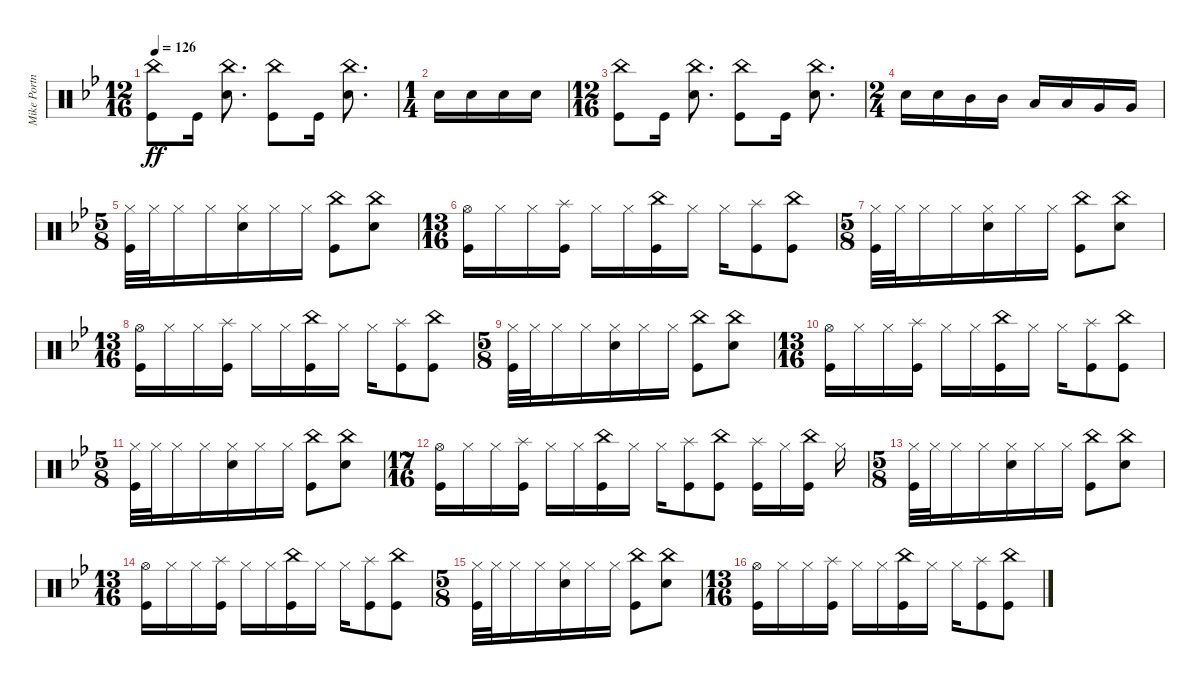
\track ("Mike Portnoy - Drums" "Mike Portn") {instrument percussion}
\staff {score}
\articulation defaults
\ts (12 16)
\tempo 126
\clef neutral
\ks gminor
("China (hit)" "Kick (hit)").8{dy ff} "Kick (hit)".16 ("China (hit)" "Snare (hit) 2").8{d} ("China (hit)" "Kick (hit)").8 "Kick (hit)".16 ("China (hit)" "Snare (hit) 2").8{d} |
\ts (1 4)
"Snare (hit) 2".16 "Snare (hit) 2".16 "Snare (hit) 2".16 "Snare (hit) 2".16 |
\ts (12 16)
("China (hit)" "Kick (hit)").8 "Kick (hit)".16 ("China (hit)" "Snare (hit) 2").8{d} ("China (hit)" "Kick (hit)").8 "Kick (hit)".16 ("China (hit)" "Snare (hit) 2").8{d} |
\ts (2 4)
"Snare (hit) 2".16 "Snare (hit) 2".16 "Mid Tom (hit)".16 "Mid Tom (hit)".16 "Low Tom (hit)".16 "Low Tom (hit)".16 "Very Low Tom (hit)".16 "Very Low Tom (hit)".16 |
\ts (5 8)
("Hi-Hat (closed)" "Kick (hit)").32 "Hi-Hat (closed)".32 "Hi-Hat (closed)".16 "Hi-Hat (closed)".16 ("Hi-Hat (closed)" "Snare (hit) 2").16 "Hi-Hat (closed)".16 "Hi-Hat (closed)".16 ("China (hit)" "Kick (hit)").8 ("China (hit)" "Snare (hit) 2").8 |
\ts (13 16)
("Hi-Hat (open)" "Kick (hit)").16 "Hi-Hat (closed)".16 "Hi-Hat (closed)".16 ("Splash (hit)" "Kick (hit)").16 "Hi-Hat (closed)".16 "Hi-Hat (closed)".16 ("China (hit)" "Kick (hit)").16 "Hi-Hat (closed)".16 "Hi-Hat (closed)".16 ("Splash (hit)" "Kick (hit)").8 ("China (hit)" "Kick (hit)").8 |
\ts (5 8)
("Hi-Hat (closed)" "Kick (hit)").32 "Hi-Hat (closed)".32 "Hi-Hat (closed)".16 "Hi-Hat (closed)".16 ("Hi-Hat (closed)" "Snare (hit) 2").16 "Hi-Hat (closed)".16 "Hi-Hat (closed)".16 ("China (hit)" "Kick (hit)").8 ("China (hit)" "Snare (hit) 2").8 |
\ts (13 16)
("Hi-Hat (open)" "Kick (hit)").16 "Hi-Hat (closed)".16 "Hi-Hat (closed)".16 ("Splash (hit)" "Kick (hit)").16 "Hi-Hat (closed)".16 "Hi-Hat (closed)".16 ("China (hit)" "Kick (hit)").16 "Hi-Hat (closed)".16 "Hi-Hat (closed)".16 ("Splash (hit)" "Kick (hit)").8 ("China (hit)" "Kick (hit)").8 |
\ts (5 8)
("Hi-Hat (closed)" "Kick (hit)").32 "Hi-Hat (closed)".32 "Hi-Hat (closed)".16 "Hi-Hat (closed)".16 ("Hi-Hat (closed)" "Snare (hit) 2").16 "Hi-Hat (closed)".16 "Hi-Hat (closed)".16 ("China (hit)" "Kick (hit)").8 ("China (hit)" "Snare (hit) 2").8 |
\ts (13 16)
("Hi-Hat (open)" "Kick (hit)").16 "Hi-Hat (closed)".16 "Hi-Hat (closed)".16 ("Splash (hit)" "Kick (hit)").16 "Hi-Hat (closed)".16 "Hi-Hat (closed)".16 ("China (hit)" "Kick (hit)").16 "Hi-Hat (closed)".16 "Hi-Hat (closed)".16 ("Splash (hit)" "Kick (hit)").8 ("China (hit)" "Kick (hit)").8 |
\ts (5 8)
("Hi-Hat (closed)" "Kick (hit)").32 "Hi-Hat (closed)".32 "Hi-Hat (closed)".16 "Hi-Hat (closed)".16 ("Hi-Hat (closed)" "Snare (hit) 2").16 "Hi-Hat (closed)".16 "Hi-Hat (closed)".16 ("China (hit)" "Kick (hit)").8 ("China (hit)" "Snare (hit) 2").8 |
\ts (17 16)
("Hi-Hat (open)" "Kick (hit)").16 "Hi-Hat (closed)".16 "Hi-Hat (closed)".16 ("Splash (hit)" "Kick (hit)").16 "Hi-Hat (closed)".16 "Hi-Hat (closed)".16 ("China (hit)" "Kick (hit)").16 "Hi-Hat (closed)".16 "Hi-Hat (closed)".16 ("Splash (hit)" "Kick (hit)").8 ("China (hit)" "Kick (hit)").8 ("Splash (hit)" "Kick (hit)").16 "Hi-Hat (closed)".16 ("China (hit)" "Kick (hit)").16 "Hi-Hat (closed)".16 |
\ts (5 8)
("Hi-Hat (closed)" "Kick (hit)").32 "Hi-Hat (closed)".32 "Hi-Hat (closed)".16 "Hi-Hat (closed)".16 ("Hi-Hat (closed)" "Snare (hit) 2").16 "Hi-Hat (closed)".16 "Hi-Hat (closed)".16 ("China (hit)" "Kick (hit)").8 ("China (hit)" "Snare (hit) 2").8 |
\ts (13 16)
("Hi-Hat (open)" "Kick (hit)").16 "Hi-Hat (closed)".16 "Hi-Hat (closed)".16 ("Splash (hit)" "Kick (hit)").16 "Hi-Hat (closed)".16 "Hi-Hat (closed)".16 ("China (hit)" "Kick (hit)").16 "Hi-Hat (closed)".16 "Hi-Hat (closed)".16 ("Splash (hit)" "Kick (hit)").8 ("China (hit)" "Kick (hit)").8 |
\ts (5 8)
("Hi-Hat (closed)" "Kick (hit)").32 "Hi-Hat (closed)".32 "Hi-Hat (closed)".16 "Hi-Hat (closed)".16 ("Hi-Hat (closed)" "Snare (hit) 2").16 "Hi-Hat (closed)".16 "Hi-Hat (closed)".16 ("China (hit)" "Kick (hit)").8 ("China (hit)" "Snare (hit) 2").8 |
\ts (13 16)
("Hi-Hat (open)" "Kick (hit)").16 "Hi-Hat (closed)".16 "Hi-Hat (closed)".16 ("Splash (hit)" "Kick (hit)").16 "Hi-Hat (closed)".16 "Hi-Hat (closed)".16 ("China (hit)" "Kick (hit)").16 "Hi-Hat (closed)".16 "Hi-Hat (closed)".16 ("Splash (hit)" "Kick (hit)").8 ("China (hit)" "Kick (hit)").8
